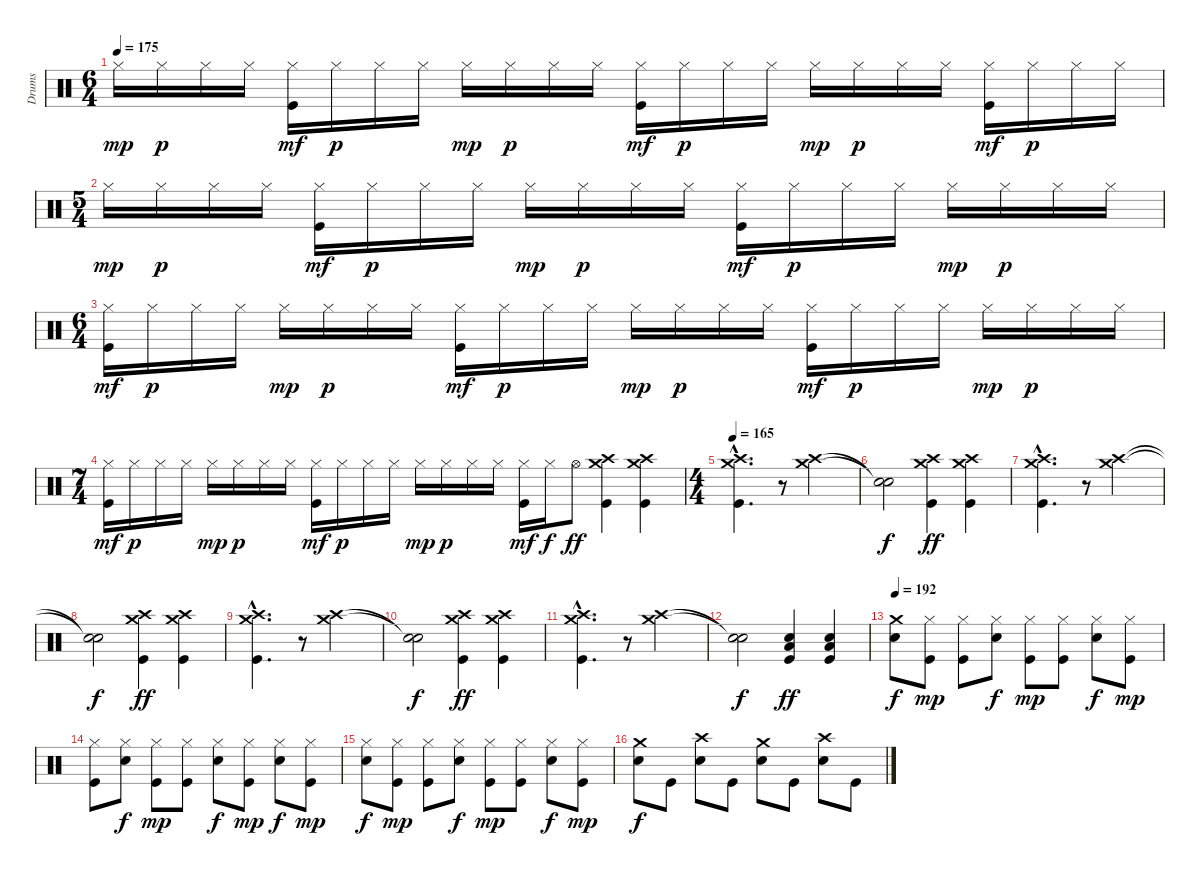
\track ("Drums" "Drums") {instrument percussion}
\staff {score}
\articulation defaults
\ts (6 4)
\tempo 175
\clef neutral
\ks c "Hi-Hat (closed)".16{dy mp} "Hi-Hat (closed)".16{dy p} "Hi-Hat (closed)".16 "Hi-Hat (closed)".16
("Hi-Hat (closed)" "Kick (hit)").16{dy mf} "Hi-Hat (closed)".16{dy p} "Hi-Hat (closed)".16 "Hi-Hat (closed)".16 "Hi-Hat (closed)".16{dy mp} "Hi-Hat (closed)".16{dy p} "Hi-Hat (closed)".16 "Hi-Hat (closed)".16 ("Hi-Hat (closed)" "Kick (hit)").16{dy mf} "Hi-Hat (closed)".16{dy p} "Hi-Hat (closed)".16 "Hi-Hat (closed)".16 "Hi-Hat (closed)".16{dy mp} "Hi-Hat (closed)".16{dy p} "Hi-Hat (closed)".16 "Hi-Hat (closed)".16 ("Hi-Hat (closed)" "Kick (hit)").16{dy mf} "Hi-Hat (closed)".16{dy p} "Hi-Hat (closed)".16 "Hi-Hat (closed)".16 |
\ts (5 4)
"Hi-Hat (closed)".16{dy mp} "Hi-Hat (closed)".16{dy p} "Hi-Hat (closed)".16 "Hi-Hat (closed)".16 ("Hi-Hat (closed)" "Kick (hit)").16{dy mf} "Hi-Hat (closed)".16{dy p} "Hi-Hat (closed)".16 "Hi-Hat (closed)".16 "Hi-Hat (closed)".16{dy mp} "Hi-Hat (closed)".16{dy p} "Hi-Hat (closed)".16 "Hi-Hat (closed)".16 ("Hi-Hat (closed)" "Kick (hit)").16{dy mf} "Hi-Hat (closed)".16{dy p} "Hi-Hat (closed)".16 "Hi-Hat (closed)".16 "Hi-Hat (closed)".16{dy mp} "Hi-Hat (closed)".16{dy p} "Hi-Hat (closed)".16 "Hi-Hat (closed)".16 |
\ts (6 4)
("Hi-Hat (closed)" "Kick (hit)").16{dy mf} "Hi-Hat (closed)".16{dy p} "Hi-Hat (closed)".16 "Hi-Hat (closed)".16 "Hi-Hat (closed)".16{dy mp} "Hi-Hat (closed)".16{dy p} "Hi-Hat (closed)".16 "Hi-Hat (closed)".16 ("Hi-Hat (closed)" "Kick (hit)").16{dy mf} "Hi-Hat (closed)".16{dy p} "Hi-Hat (closed)".16 "Hi-Hat (closed)".16 "Hi-Hat (closed)".16{dy mp} "Hi-Hat (closed)".16{dy p} "Hi-Hat (closed)".16 "Hi-Hat (closed)".16 ("Hi-Hat (closed)" "Kick (hit)").16{dy mf} "Hi-Hat (closed)".16{dy p} "Hi-Hat (closed)".16 "Hi-Hat (closed)".16 "Hi-Hat (closed)".16{dy mp} "Hi-Hat (closed)".16{dy p} "Hi-Hat (closed)".16 "Hi-Hat (closed)".16 |
\ts (7 4)
("Hi-Hat (closed)" "Kick (hit)").16{dy mf} "Hi-Hat (closed)".16{dy p} "Hi-Hat (closed)".16 "Hi-Hat (closed)".16 "Hi-Hat (closed)".16{dy mp} "Hi-Hat (closed)".16{dy p} "Hi-Hat (closed)".16 "Hi-Hat (closed)".16 ("Hi-Hat (closed)" "Kick (hit)").16{dy mf} "Hi-Hat (closed)".16{dy p} "Hi-Hat (closed)".16 "Hi-Hat (closed)".16 "Hi-Hat (closed)".16{dy mp} "Hi-Hat (closed)".16{dy p} "Hi-Hat (closed)".16 "Hi-Hat (closed)".16 ("Hi-Hat (closed)" "Kick (hit)").16{dy mf} "Hi-Hat (closed)".16{dy f} "Hi-Hat (open)".8{dy ff} ("Crash medium (hit)" "Crash high (hit)" "Kick (hit)").4 ("Crash medium (hit)" "Crash high (hit)" "Kick (hit)").4 |
\ts (4 4)
\tempo 165
("Crash high (hit)"{hac} "Crash medium (hit)"{hac} "Kick (hit)"{hac}).4{d} r.8{volume 0} ("Crash high (hit)" "Crash medium (hit)").2{volume 14} |
("Snare (hit)"{t} "Snare (hit)"{t}).2{dy f} ("Crash medium (hit)" "Crash high (hit)" "Kick (hit)").4{dy ff} ("Crash medium (hit)" "Crash high (hit)" "Kick (hit)").4 |
("Crash high (hit)"{hac} "Crash medium (hit)"{hac} "Kick (hit)"{hac}).4{d} r.8{volume 0} ("Crash high (hit)" "Crash medium (hit)").2{volume 14} |
("Snare (hit)"{t} "Snare (hit)"{t}).2{dy f} ("Crash medium (hit)" "Crash high (hit)" "Kick (hit)").4{dy ff} ("Crash medium (hit)" "Crash high (hit)" "Kick (hit)").4 |
("Crash high (hit)"{hac} "Crash medium (hit)"{hac} "Kick (hit)"{hac}).4{d} r.8{volume 0} ("Crash high (hit)" "Crash medium (hit)").2{volume 14} |
("Snare (hit)"{t} "Snare (hit)"{t}).2{dy f} ("Crash medium (hit)" "Crash high (hit)" "Kick (hit)").4{dy ff} ("Crash medium (hit)" "Crash high (hit)" "Kick (hit)").4 |
("Crash high (hit)"{hac} "Crash medium (hit)"{hac} "Kick (hit)"{hac}).4{d} r.8{volume 0} ("Crash high (hit)" "Crash medium (hit)").2{volume 14} |
("Snare (hit)"{t} "Snare (hit)"{t}).2{dy f} ("Electric Snare (hit)" "Low Floor Tom (hit)" "Kick (hit)").4{dy ff} ("Electric Snare (hit)" "Low Floor Tom (hit)" "Kick (hit)").4 |
\tempo 192
("Crash medium (hit)" "Electric Snare (hit)").8{dy f} ("Hi-Hat (closed)" "Kick (hit)").8{dy mp} ("Hi-Hat (closed)" "Kick (hit)").8 ("Hi-Hat (closed)" "Electric Snare (hit)").8{dy f} ("Hi-Hat (closed)" "Kick (hit)").8{dy mp} ("Hi-Hat (closed)" "Kick (hit)").8 ("Hi-Hat (closed)" "Electric Snare (hit)").8{dy f} ("Hi-Hat (closed)" "Kick (hit)").8{dy mp} |
("Hi-Hat (closed)" "Kick (hit)").8 ("Hi-Hat (closed)" "Electric Snare (hit)").8{dy f} ("Hi-Hat (closed)" "Kick (hit)").8{dy mp} ("Hi-Hat (closed)" "Kick (hit)").8 ("Hi-Hat (closed)" "Electric Snare (hit)").8{dy f} ("Hi-Hat (closed)" "Kick (hit)").8{dy mp} ("Hi-Hat (closed)" "Electric Snare (hit)").8{dy f} ("Hi-Hat (closed)" "Kick (hit)").8{dy mp} |
("Hi-Hat (closed)" "Electric Snare (hit)").8{dy f} ("Hi-Hat (closed)" "Kick (hit)").8{dy mp} ("Hi-Hat (closed)" "Kick (hit)").8 ("Hi-Hat (closed)" "Electric Snare (hit)").8{dy f} ("Hi-Hat (closed)" "Kick (hit)").8{dy mp} ("Hi-Hat (closed)" "Kick (hit)").8 ("Hi-Hat (closed)" "Electric Snare (hit)").8{dy f} ("Hi-Hat (closed)" "Kick (hit)").8{dy mp} |
("Crash medium (hit)" "Electric Snare (hit)").8{dy f} "Kick (hit)".8 ("Crash high (hit)" "Electric Snare (hit)").8 "Kick (hit)".8 ("Crash medium (hit)" "Electric Snare (hit)").8 "Kick (hit)".8 ("Crash high (hit)" "Electric Snare (hit)").8 "Kick (hit)".8
